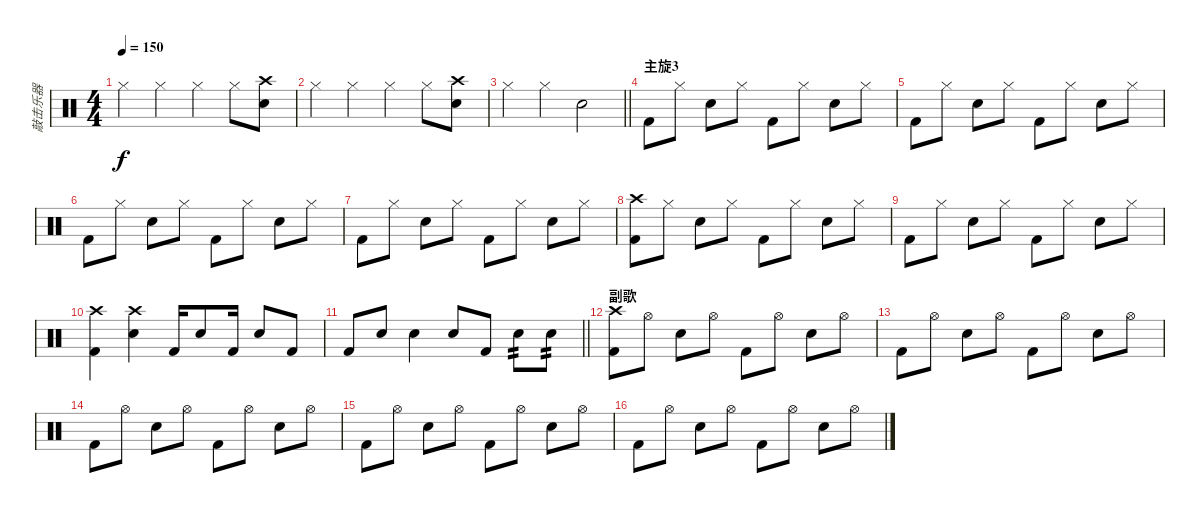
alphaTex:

\track ("敲击乐器" "敲击乐器") {instrument percussion}
\staff {score}
\articulation defaults
\ts (4 4)
\tempo 150
\clef neutral
\ks c "Hi-Hat (closed)".4{dy f} "Hi-Hat (closed)".4 "Hi-Hat (closed)".4 "Hi-Hat (closed)".8
("Crash high (hit)" "Snare (hit) 2").8 |
"Hi-Hat (closed)".4 "Hi-Hat (closed)".4 "Hi-Hat (closed)".4 "Hi-Hat (closed)".8 ("Crash high (hit)" "Snare (hit) 2").8 |
\barLineRight lightlight "Hi-Hat (closed)".4 "Hi-Hat (closed)".4 "Snare (hit) 2".2
|
\section ("" "主旋3")
"Kick (hit) 2".8 "Hi-Hat (closed)".8 "Snare (hit) 2".8 "Hi-Hat (closed)".8 "Kick (hit) 2".8 "Hi-Hat (closed)".8 "Snare (hit) 2".8 "Hi-Hat (closed)".8 |
"Kick (hit) 2".8 "Hi-Hat (closed)".8 "Snare (hit) 2".8 "Hi-Hat (closed)".8 "Kick (hit) 2".8 "Hi-Hat (closed)".8 "Snare (hit) 2".8 "Hi-Hat (closed)".8 |
"Kick (hit) 2".8 "Hi-Hat (closed)".8 "Snare (hit) 2".8 "Hi-Hat (closed)".8 "Kick (hit) 2".8 "Hi-Hat (closed)".8 "Snare (hit) 2".8 "Hi-Hat (closed)".8 |
"Kick (hit) 2".8 "Hi-Hat (closed)".8 "Snare (hit) 2".8 "Hi-Hat (closed)".8 "Kick (hit) 2".8 "Hi-Hat (closed)".8 "Snare (hit) 2".8 "Hi-Hat (closed)".8 |
("Crash high (hit)" "Kick (hit) 2").8 "Hi-Hat (closed)".8 "Snare (hit) 2".8 "Hi-Hat (closed)".8 "Kick (hit) 2".8 "Hi-Hat (closed)".8 "Snare (hit) 2".8 "Hi-Hat (closed)".8 |
"Kick (hit) 2".8 "Hi-Hat (closed)".8 "Snare (hit) 2".8 "Hi-Hat (closed)".8 "Kick (hit) 2".8 "Hi-Hat (closed)".8 "Snare (hit) 2".8 "Hi-Hat (closed)".8 |
("Crash high (hit)" "Kick (hit) 2").4 ("Crash high (hit)" "Snare (hit) 2").4 "Kick (hit) 2".16 "Snare (hit) 2".8 "Kick (hit) 2".16 "Snare (hit) 2".8 "Kick (hit) 2".8 |
\barLineRight lightlight "Kick (hit) 2".8 "Snare (hit) 2".8 "Snare (hit) 2".4 "Snare (hit) 2".8 "Kick (hit) 2".8 "Snare (hit) 2".8{tp 2} "Snare (hit) 2".8{tp 2}
|
\section ("" "副歌")
("Crash high (hit)" "Kick (hit) 2").8 "Hi-Hat (open)".8 "Snare (hit) 2".8 "Hi-Hat (open)".8 "Kick (hit) 2".8 "Hi-Hat (open)".8 "Snare (hit) 2".8 "Hi-Hat (open)".8 |
"Kick (hit) 2".8 "Hi-Hat (open)".8 "Snare (hit) 2".8 "Hi-Hat (open)".8 "Kick (hit) 2".8 "Hi-Hat (open)".8 "Snare (hit) 2".8 "Hi-Hat (open)".8 |
"Kick (hit) 2".8 "Hi-Hat (open)".8 "Snare (hit) 2".8 "Hi-Hat (open)".8 "Kick (hit) 2".8 "Hi-Hat (open)".8 "Snare (hit) 2".8 "Hi-Hat (open)".8 |
"Kick (hit) 2".8 "Hi-Hat (open)".8 "Snare (hit) 2".8 "Hi-Hat (open)".8 "Kick (hit) 2".8 "Hi-Hat (open)".8 "Snare (hit) 2".8 "Hi-Hat (open)".8 |
"Kick (hit) 2".8 "Hi-Hat (open)".8 "Snare (hit) 2".8 "Hi-Hat (open)".8 "Kick (hit) 2".8 "Hi-Hat (open)".8 "Snare (hit) 2".8 "Hi-Hat (open)".8
